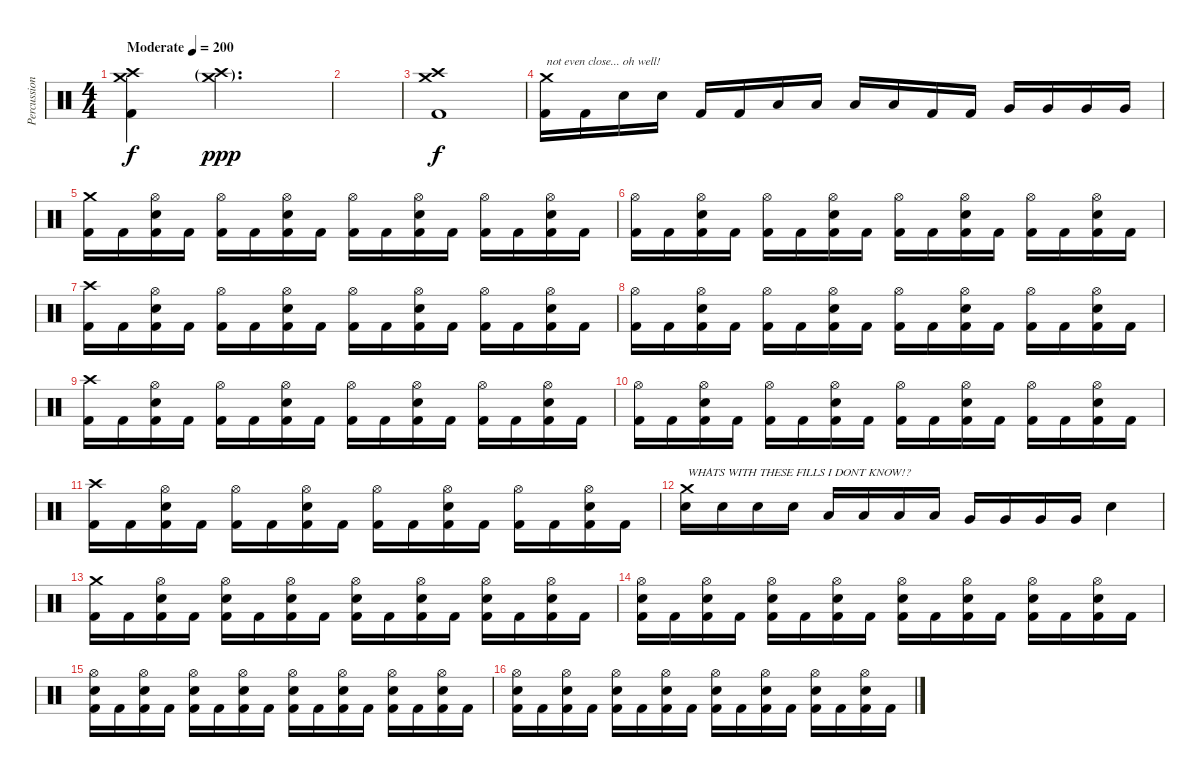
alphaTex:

\track ("Percussion" "Percussion") {instrument percussion}
\staff {score}
\articulation defaults
\ts (4 4)
\tempo (200 "Moderate")
\clef neutral
\ks c
("Crash medium (hit)" "Crash high (hit)" "Kick (hit) 2").4{dy f} ("Crash medium (hit)"{g} "Crash high (hit)"{g}).2{d dy ppp} |
|
("Crash medium (hit)" "Crash high (hit)" "Kick (hit) 2").1{dy f} |
("Crash medium (hit)" "Kick (hit) 2").16{txt "not even close... oh well!"} "Kick (hit) 2".16 "Electric Snare (hit)".16 "Electric Snare (hit)".16 "Kick (hit) 2".16 "Kick (hit) 2".16 "Low Tom (hit)".16 "Low Tom (hit)".16 "Low Tom (hit)".16 "Low Tom (hit)".16 "Kick (hit) 2".16 "Kick (hit) 2".16 "Very Low Tom (hit)".16 "Very Low Tom (hit)".16 "Very Low Tom (hit)".16 "Very Low Tom (hit)".16 |
("Crash medium (hit)" "Kick (hit) 2").16 "Kick (hit) 2".16 ("Hi-Hat (open)" "Electric Snare (hit)" "Kick (hit) 2").16 "Kick (hit) 2".16 ("Hi-Hat (open)" "Kick (hit) 2").16 "Kick (hit) 2".16 ("Hi-Hat (open)" "Electric Snare (hit)" "Kick (hit) 2").16 "Kick (hit) 2".16 ("Hi-Hat (open)" "Kick (hit) 2").16 "Kick (hit) 2".16 ("Hi-Hat (open)" "Electric Snare (hit)" "Kick (hit) 2").16 "Kick (hit) 2".16 ("Hi-Hat (open)" "Kick (hit) 2").16 "Kick (hit) 2".16 ("Hi-Hat (open)" "Electric Snare (hit)" "Kick (hit) 2").16 "Kick (hit) 2".16 |
("Hi-Hat (open)" "Kick (hit) 2").16 "Kick (hit) 2".16 ("Hi-Hat (open)" "Electric Snare (hit)" "Kick (hit) 2").16 "Kick (hit) 2".16 ("Hi-Hat (open)" "Kick (hit) 2").16 "Kick (hit) 2".16 ("Hi-Hat (open)" "Electric Snare (hit)" "Kick (hit) 2").16 "Kick (hit) 2".16 ("Hi-Hat (open)" "Kick (hit) 2").16 "Kick (hit) 2".16 ("Hi-Hat (open)" "Electric Snare (hit)" "Kick (hit) 2").16 "Kick (hit) 2".16 ("Hi-Hat (open)" "Kick (hit) 2").16 "Kick (hit) 2".16 ("Hi-Hat (open)" "Electric Snare (hit)" "Kick (hit) 2").16 "Kick (hit) 2".16 |
("Crash high (hit)" "Kick (hit) 2").16 "Kick (hit) 2".16 ("Hi-Hat (open)" "Electric Snare (hit)" "Kick (hit) 2").16 "Kick (hit) 2".16 ("Hi-Hat (open)" "Kick (hit) 2").16 "Kick (hit) 2".16 ("Hi-Hat (open)" "Electric Snare (hit)" "Kick (hit) 2").16 "Kick (hit) 2".16 ("Hi-Hat (open)" "Kick (hit) 2").16 "Kick (hit) 2".16 ("Hi-Hat (open)" "Electric Snare (hit)" "Kick (hit) 2").16 "Kick (hit) 2".16 ("Hi-Hat (open)" "Kick (hit) 2").16 "Kick (hit) 2".16 ("Hi-Hat (open)" "Electric Snare (hit)" "Kick (hit) 2").16 "Kick (hit) 2".16 |
("Hi-Hat (open)" "Kick (hit) 2").16 "Kick (hit) 2".16 ("Hi-Hat (open)" "Electric Snare (hit)" "Kick (hit) 2").16 "Kick (hit) 2".16 ("Hi-Hat (open)" "Kick (hit) 2").16 "Kick (hit) 2".16 ("Hi-Hat (open)" "Electric Snare (hit)" "Kick (hit) 2").16 "Kick (hit) 2".16 ("Hi-Hat (open)" "Kick (hit) 2").16 "Kick (hit) 2".16 ("Hi-Hat (open)" "Electric Snare (hit)" "Kick (hit) 2").16 "Kick (hit) 2".16 ("Hi-Hat (open)" "Kick (hit) 2").16 "Kick (hit) 2".16 ("Hi-Hat (open)" "Electric Snare (hit)" "Kick (hit) 2").16 "Kick (hit) 2".16 |
("Crash high (hit)" "Kick (hit) 2").16 "Kick (hit) 2".16 ("Hi-Hat (open)" "Electric Snare (hit)" "Kick (hit) 2").16 "Kick (hit) 2".16 ("Hi-Hat (open)" "Kick (hit) 2").16 "Kick (hit) 2".16 ("Hi-Hat (open)" "Electric Snare (hit)" "Kick (hit) 2").16 "Kick (hit) 2".16 ("Hi-Hat (open)" "Kick (hit) 2").16 "Kick (hit) 2".16 ("Hi-Hat (open)" "Electric Snare (hit)" "Kick (hit) 2").16 "Kick (hit) 2".16 ("Hi-Hat (open)" "Kick (hit) 2").16 "Kick (hit) 2".16 ("Hi-Hat (open)" "Electric Snare (hit)" "Kick (hit) 2").16 "Kick (hit) 2".16 |
("Hi-Hat (open)" "Kick (hit) 2").16 "Kick (hit) 2".16 ("Hi-Hat (open)" "Electric Snare (hit)" "Kick (hit) 2").16 "Kick (hit) 2".16 ("Hi-Hat (open)" "Kick (hit) 2").16 "Kick (hit) 2".16 ("Hi-Hat (open)" "Electric Snare (hit)" "Kick (hit) 2").16 "Kick (hit) 2".16 ("Hi-Hat (open)" "Kick (hit) 2").16 "Kick (hit) 2".16 ("Hi-Hat (open)" "Electric Snare (hit)" "Kick (hit) 2").16 "Kick (hit) 2".16 ("Hi-Hat (open)" "Kick (hit) 2").16 "Kick (hit) 2".16 ("Hi-Hat (open)" "Electric Snare (hit)" "Kick (hit) 2").16 "Kick (hit) 2".16 |
("Crash high (hit)" "Kick (hit) 2").16 "Kick (hit) 2".16 ("Hi-Hat (open)" "Electric Snare (hit)" "Kick (hit) 2").16 "Kick (hit) 2".16 ("Hi-Hat (open)" "Kick (hit) 2").16 "Kick (hit) 2".16 ("Hi-Hat (open)" "Electric Snare (hit)" "Kick (hit) 2").16 "Kick (hit) 2".16 ("Hi-Hat (open)" "Kick (hit) 2").16 "Kick (hit) 2".16 ("Hi-Hat (open)" "Electric Snare (hit)" "Kick (hit) 2").16 "Kick (hit) 2".16 ("Hi-Hat (open)" "Kick (hit) 2").16 "Kick (hit) 2".16 ("Hi-Hat (open)" "Electric Snare (hit)" "Kick (hit) 2").16 "Kick (hit) 2".16 |
("Crash medium (hit)" "Electric Snare (hit)").16{txt "WHATS WITH THESE FILLS I DONT KNOW!?"} "Electric Snare (hit)".16 "Electric Snare (hit)".16 "Electric Snare (hit)".16 "Low Tom (hit)".16 "Low Tom (hit)".16 "Low Tom (hit)".16 "Low Tom (hit)".16 "Very Low Tom (hit)".16 "Very Low Tom (hit)".16 "Very Low Tom (hit)".16 "Very Low Tom (hit)".16 "Electric Snare (hit)".4 |
("Crash medium (hit)" "Kick (hit) 2").16 "Kick (hit) 2".16 ("Hi-Hat (open)" "Electric Snare (hit)" "Kick (hit) 2").16 "Kick (hit) 2".16 ("Hi-Hat (open)" "Electric Snare (hit)" "Kick (hit) 2").16 "Kick (hit) 2".16 ("Hi-Hat (open)" "Electric Snare (hit)" "Kick (hit) 2").16 "Kick (hit) 2".16 ("Hi-Hat (open)" "Electric Snare (hit)" "Kick (hit) 2").16 "Kick (hit) 2".16 ("Hi-Hat (open)" "Electric Snare (hit)" "Kick (hit) 2").16 "Kick (hit) 2".16 ("Hi-Hat (open)" "Electric Snare (hit)" "Kick (hit) 2").16 "Kick (hit) 2".16 ("Hi-Hat (open)" "Electric Snare (hit)" "Kick (hit) 2").16 "Kick (hit) 2".16 |
("Hi-Hat (open)" "Electric Snare (hit)" "Kick (hit) 2").16 "Kick (hit) 2".16 ("Hi-Hat (open)" "Electric Snare (hit)" "Kick (hit) 2").16 "Kick (hit) 2".16 ("Hi-Hat (open)" "Electric Snare (hit)" "Kick (hit) 2").16 "Kick (hit) 2".16 ("Hi-Hat (open)" "Electric Snare (hit)" "Kick (hit) 2").16 "Kick (hit) 2".16 ("Hi-Hat (open)" "Electric Snare (hit)" "Kick (hit) 2").16 "Kick (hit) 2".16 ("Hi-Hat (open)" "Electric Snare (hit)" "Kick (hit) 2").16 "Kick (hit) 2".16 ("Hi-Hat (open)" "Electric Snare (hit)" "Kick (hit) 2").16 "Kick (hit) 2".16 ("Hi-Hat (open)" "Electric Snare (hit)" "Kick (hit) 2").16 "Kick (hit) 2".16 |
("Hi-Hat (open)" "Electric Snare (hit)" "Kick (hit) 2").16 "Kick (hit) 2".16 ("Hi-Hat (open)" "Electric Snare (hit)" "Kick (hit) 2").16 "Kick (hit) 2".16 ("Hi-Hat (open)" "Electric Snare (hit)" "Kick (hit) 2").16 "Kick (hit) 2".16 ("Hi-Hat (open)" "Electric Snare (hit)" "Kick (hit) 2").16 "Kick (hit) 2".16 ("Hi-Hat (open)" "Electric Snare (hit)" "Kick (hit) 2").16 "Kick (hit) 2".16 ("Hi-Hat (open)" "Electric Snare (hit)" "Kick (hit) 2").16 "Kick (hit) 2".16 ("Hi-Hat (open)" "Electric Snare (hit)" "Kick (hit) 2").16 "Kick (hit) 2".16 ("Hi-Hat (open)" "Electric Snare (hit)" "Kick (hit) 2").16 "Kick (hit) 2".16 |
("Hi-Hat (open)" "Electric Snare (hit)" "Kick (hit) 2").16 "Kick (hit) 2".16 ("Hi-Hat (open)" "Electric Snare (hit)" "Kick (hit) 2").16 "Kick (hit) 2".16 ("Hi-Hat (open)" "Electric Snare (hit)" "Kick (hit) 2").16 "Kick (hit) 2".16 ("Hi-Hat (open)" "Electric Snare (hit)" "Kick (hit) 2").16 "Kick (hit) 2".16 ("Hi-Hat (open)" "Electric Snare (hit)" "Kick (hit) 2").16 "Kick (hit) 2".16 ("Hi-Hat (open)" "Electric Snare (hit)" "Kick (hit) 2").16 "Kick (hit) 2".16 ("Hi-Hat (open)" "Electric Snare (hit)" "Kick (hit) 2").16 "Kick (hit) 2".16 ("Hi-Hat (open)" "Electric Snare (hit)" "Kick (hit) 2").16 "Kick (hit) 2".16
